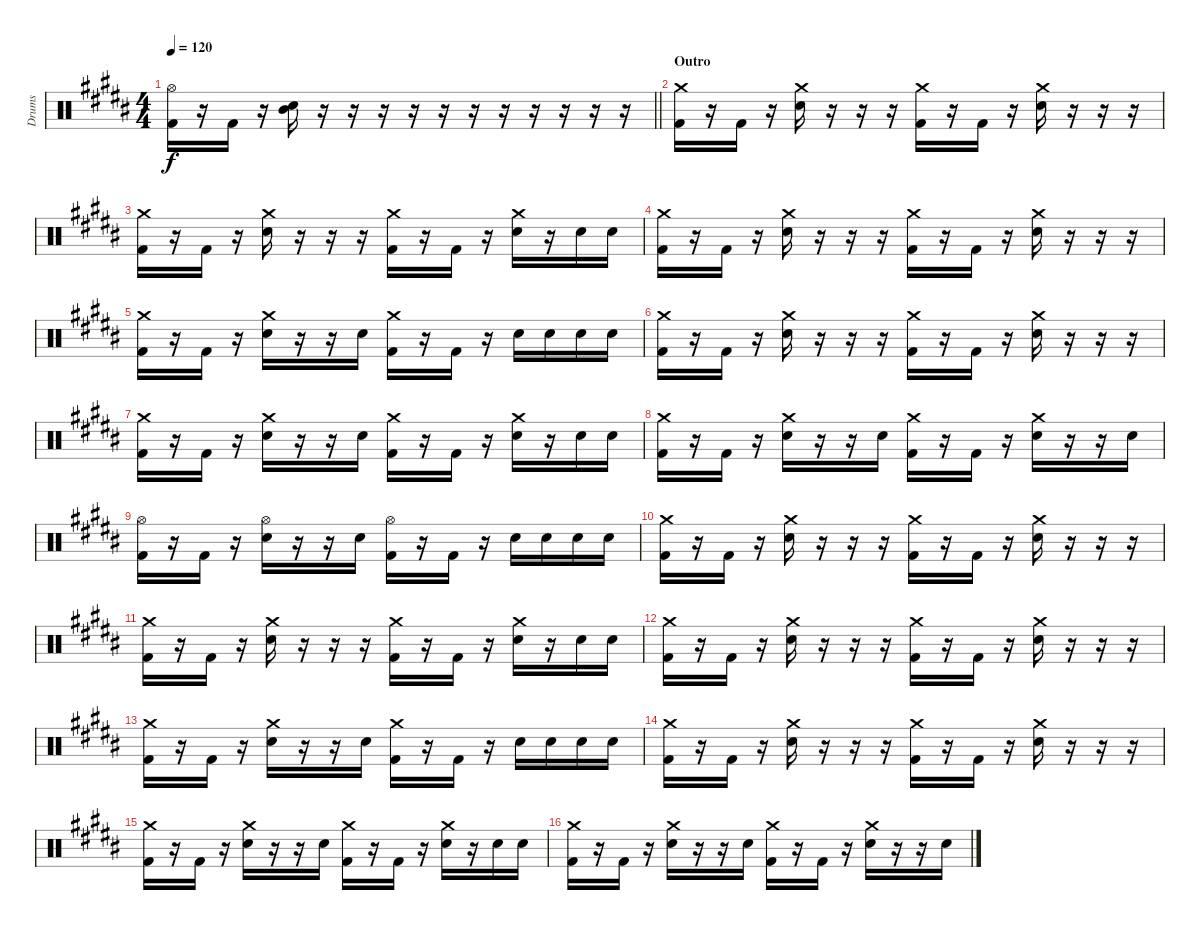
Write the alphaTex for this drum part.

\track ("Drums" "Drums") {instrument percussion}
\staff {score}
\articulation defaults
\ts (4 4)
\tempo 120
\clef neutral
\barLineRight lightlight
\ks b
("Hi-Hat (open)" "Kick (hit) 2").16{dy f} r.16 "Kick (hit) 2".16 r.16 ("Mid Tom (hit)" "Snare (hit) 2").16 r.16 r.16 r.16 r.16 r.16 r.16 r.16 r.16 r.16 r.16 r.16 |
\section ("" "Outro")
("Crash medium (hit)" "Kick (hit) 2").16 r.16 "Kick (hit) 2".16 r.16 ("Crash medium (hit)" "Snare (hit) 2").16 r.16 r.16 r.16 ("Crash medium (hit)" "Kick (hit) 2").16 r.16 "Kick (hit) 2".16 r.16 ("Crash medium (hit)" "Snare (hit) 2").16 r.16 r.16 r.16 |
("Crash medium (hit)" "Kick (hit) 2").16 r.16 "Kick (hit) 2".16 r.16 ("Crash medium (hit)" "Snare (hit) 2").16 r.16 r.16 r.16 ("Crash medium (hit)" "Kick (hit) 2").16 r.16 "Kick (hit) 2".16 r.16 ("Crash medium (hit)" "Snare (hit) 2").16 r.16 "Snare (hit) 2".16 "Snare (hit) 2".16 |
("Crash medium (hit)" "Kick (hit) 2").16 r.16 "Kick (hit) 2".16 r.16 ("Crash medium (hit)" "Snare (hit) 2").16 r.16 r.16 r.16 ("Crash medium (hit)" "Kick (hit) 2").16 r.16 "Kick (hit) 2".16 r.16 ("Crash medium (hit)" "Snare (hit) 2").16 r.16 r.16 r.16 |
("Crash medium (hit)" "Kick (hit) 2").16 r.16 "Kick (hit) 2".16 r.16 ("Crash medium (hit)" "Snare (hit) 2").16 r.16 r.16 "Snare (hit) 2".16 ("Crash medium (hit)" "Kick (hit) 2").16 r.16 "Kick (hit) 2".16 r.16 "Snare (hit) 2".16 "Snare (hit) 2".16 "Snare (hit) 2".16 "Snare (hit) 2".16 |
("Crash medium (hit)" "Kick (hit) 2").16 r.16 "Kick (hit) 2".16 r.16 ("Crash medium (hit)" "Snare (hit) 2").16 r.16 r.16 r.16 ("Crash medium (hit)" "Kick (hit) 2").16 r.16 "Kick (hit) 2".16 r.16 ("Crash medium (hit)" "Snare (hit) 2").16 r.16 r.16 r.16 |
("Crash medium (hit)" "Kick (hit) 2").16 r.16 "Kick (hit) 2".16 r.16 ("Crash medium (hit)" "Snare (hit) 2").16 r.16 r.16 "Snare (hit) 2".16 ("Crash medium (hit)" "Kick (hit) 2").16 r.16 "Kick (hit) 2".16 r.16 ("Crash medium (hit)" "Snare (hit) 2").16 r.16 "Snare (hit) 2".16 "Snare (hit) 2".16 |
("Crash medium (hit)" "Kick (hit) 2").16 r.16 "Kick (hit) 2".16 r.16 ("Crash medium (hit)" "Snare (hit) 2").16 r.16 r.16 "Snare (hit) 2".16 ("Crash medium (hit)" "Kick (hit) 2").16 r.16 "Kick (hit) 2".16 r.16 ("Crash medium (hit)" "Snare (hit) 2").16 r.16 r.16 "Snare (hit) 2".16 |
("Hi-Hat (open)" "Kick (hit) 2").16 r.16 "Kick (hit) 2".16 r.16 ("Hi-Hat (open)" "Snare (hit) 2").16 r.16 r.16 "Snare (hit) 2".16 ("Hi-Hat (open)" "Kick (hit) 2").16 r.16 "Kick (hit) 2".16 r.16 "Snare (hit) 2".16 "Snare (hit) 2".16 "Snare (hit) 2".16 "Snare (hit) 2".16 |
("Crash medium (hit)" "Kick (hit) 2").16 r.16 "Kick (hit) 2".16 r.16 ("Crash medium (hit)" "Snare (hit) 2").16 r.16 r.16 r.16 ("Crash medium (hit)" "Kick (hit) 2").16 r.16 "Kick (hit) 2".16 r.16 ("Crash medium (hit)" "Snare (hit) 2").16 r.16 r.16 r.16 |
("Crash medium (hit)" "Kick (hit) 2").16 r.16 "Kick (hit) 2".16 r.16 ("Crash medium (hit)" "Snare (hit) 2").16 r.16 r.16 r.16 ("Crash medium (hit)" "Kick (hit) 2").16 r.16 "Kick (hit) 2".16 r.16 ("Crash medium (hit)" "Snare (hit) 2").16 r.16 "Snare (hit) 2".16 "Snare (hit) 2".16 |
("Crash medium (hit)" "Kick (hit) 2").16 r.16 "Kick (hit) 2".16 r.16 ("Crash medium (hit)" "Snare (hit) 2").16 r.16 r.16 r.16 ("Crash medium (hit)" "Kick (hit) 2").16 r.16 "Kick (hit) 2".16 r.16 ("Crash medium (hit)" "Snare (hit) 2").16 r.16 r.16 r.16 |
("Crash medium (hit)" "Kick (hit) 2").16 r.16 "Kick (hit) 2".16 r.16 ("Crash medium (hit)" "Snare (hit) 2").16 r.16 r.16 "Snare (hit) 2".16 ("Crash medium (hit)" "Kick (hit) 2").16 r.16 "Kick (hit) 2".16 r.16 "Snare (hit) 2".16 "Snare (hit) 2".16 "Snare (hit) 2".16 "Snare (hit) 2".16 |
("Crash medium (hit)" "Kick (hit) 2").16 r.16 "Kick (hit) 2".16 r.16 ("Crash medium (hit)" "Snare (hit) 2").16 r.16 r.16 r.16 ("Crash medium (hit)" "Kick (hit) 2").16 r.16 "Kick (hit) 2".16 r.16 ("Crash medium (hit)" "Snare (hit) 2").16 r.16 r.16 r.16 |
("Crash medium (hit)" "Kick (hit) 2").16 r.16 "Kick (hit) 2".16 r.16 ("Crash medium (hit)" "Snare (hit) 2").16 r.16 r.16 "Snare (hit) 2".16 ("Crash medium (hit)" "Kick (hit) 2").16 r.16 "Kick (hit) 2".16 r.16 ("Crash medium (hit)" "Snare (hit) 2").16 r.16 "Snare (hit) 2".16 "Snare (hit) 2".16 |
("Crash medium (hit)" "Kick (hit) 2").16 r.16 "Kick (hit) 2".16 r.16 ("Crash medium (hit)" "Snare (hit) 2").16 r.16 r.16 "Snare (hit) 2".16 ("Crash medium (hit)" "Kick (hit) 2").16 r.16 "Kick (hit) 2".16 r.16 ("Crash medium (hit)" "Snare (hit) 2").16 r.16 r.16 "Snare (hit) 2".16
